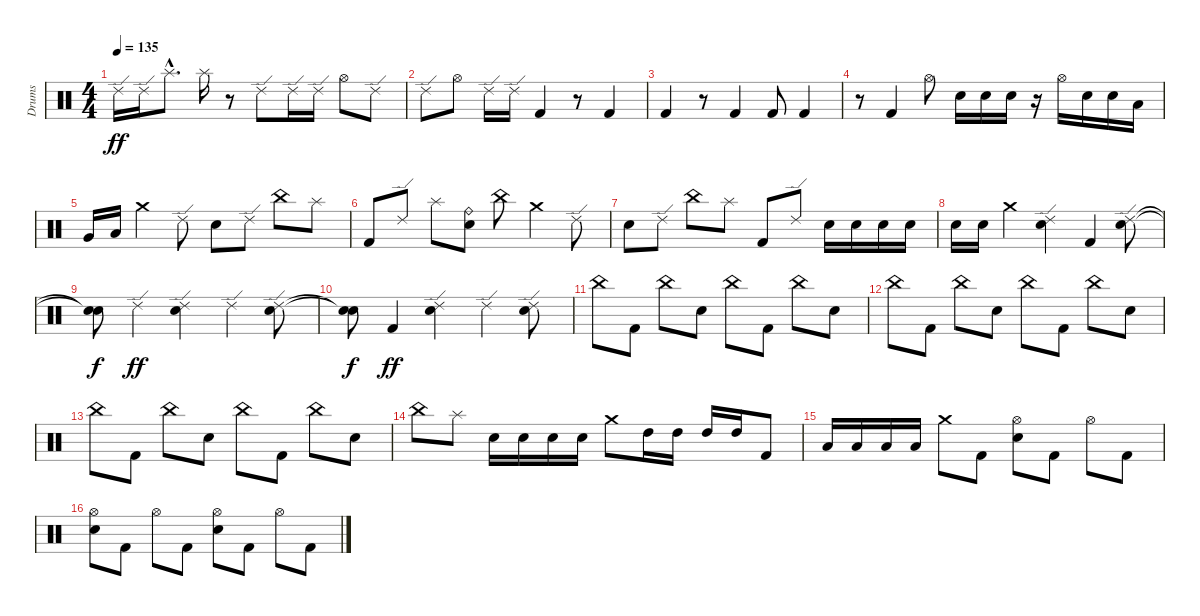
\track ("Drums" "Drums") {instrument percussion}
\staff {score}
\articulation defaults
\ts (4 4)
\tempo 135
\clef neutral
\ks c "Ride (edge) 2".16{dy ff} "Ride (edge) 2".16 "Splash (hit)"{hac}.8{d} "Splash (hit)".16
r.8 "Ride (edge) 2".8 "Ride (edge) 2".16 "Ride (edge) 2".16 "Hi-Hat (open)".8 "Ride (edge) 2".8 |
"Ride (edge) 2".8 "Hi-Hat (open)".8 "Ride (edge) 2".16 "Ride (edge) 2".16 "Kick (hit) 2".4 r.8 "Kick (hit) 2".4 |
"Kick (hit) 2".4 r.8 "Kick (hit) 2".4 "Kick (hit) 2".8 "Kick (hit) 2".4 |
r.8 "Kick (hit) 2".4 "Hi-Hat (open)".8 "Electric Snare (hit)".16 "Electric Snare (hit)".16 "Electric Snare (hit)".16 r.16 "Hi-Hat (open)".16 "Electric Snare (hit)".16 "Electric Snare (hit)".16 "Low Tom (hit)".16 |
"Very Low Tom (hit)".16 "Low Floor Tom (hit)".16 "Crash medium (hit)".4 "Ride (edge) 2".8 "Electric Snare (hit)".8 "Ride (edge) 2".8 "China (hit)".8 "Splash (hit)".8 |
"Kick (hit) 2".8 "Ride (edge) 2".8 "Splash (hit)".8 ("Electric Snare (hit)" "Ride (bell)").8 "China (hit)".8 "Crash medium (hit)".4 "Ride (edge) 2".8 |
"Electric Snare (hit)".8 "Ride (edge) 2".8 "China (hit)".8 "Splash (hit)".8 "Kick (hit) 2".8 "Ride (edge) 2".8 "Electric Snare (hit)".16 "Electric Snare (hit)".16 "Electric Snare (hit)".16 "Electric Snare (hit)".16 |
"Electric Snare (hit)".16 "Electric Snare (hit)".16 "Crash medium (hit)".4 ("Electric Snare (hit)" "Ride (edge) 2").4 "Kick (hit) 2".4 ("Electric Snare (hit)" "Ride (edge) 2").8 |
("Snare (hit)"{t} "Snare (hit)"{t}).8{dy f} "Ride (edge) 2".4{dy ff} ("Electric Snare (hit)" "Ride (edge) 2").4 "Ride (edge) 2".4 ("Electric Snare (hit)" "Ride (edge) 2").8 |
("Snare (hit)"{t} "Snare (hit)"{t}).8{dy f} "Kick (hit) 2".4{dy ff} ("Electric Snare (hit)" "Ride (edge) 2").4 "Ride (edge) 2".4 ("Electric Snare (hit)" "Ride (edge) 2").8 |
"China (hit)".8 "Kick (hit) 2".8 "China (hit)".8 "Electric Snare (hit)".8 "China (hit)".8 "Kick (hit) 2".8 "China (hit)".8 "Electric Snare (hit)".8 |
"China (hit)".8 "Kick (hit) 2".8 "China (hit)".8 "Electric Snare (hit)".8 "China (hit)".8 "Kick (hit) 2".8 "China (hit)".8 "Electric Snare (hit)".8 |
"China (hit)".8 "Kick (hit) 2".8 "China (hit)".8 "Electric Snare (hit)".8 "China (hit)".8 "Kick (hit) 2".8 "China (hit)".8 "Electric Snare (hit)".8 |
"China (hit)".8 "Splash (hit)".8 "Electric Snare (hit)".16 "Electric Snare (hit)".16 "Electric Snare (hit)".16 "Electric Snare (hit)".16 "Crash medium (hit)".8 "High Tom (hit)".16 "High Tom (hit)".16 "High Tom (hit)".16 "High Tom (hit)".16 "Kick (hit) 2".8 |
"Low Tom (hit)".16 "Low Tom (hit)".16 "Low Tom (hit)".16 "Low Tom (hit)".16 "Crash medium (hit)".8 "Kick (hit) 2".8 ("Electric Snare (hit)" "Hi-Hat (open)").8 "Kick (hit) 2".8 "Hi-Hat (open)".8 "Kick (hit) 2".8 |
("Electric Snare (hit)" "Hi-Hat (open)").8 "Kick (hit) 2".8 "Hi-Hat (open)".8 "Kick (hit) 2".8 ("Electric Snare (hit)" "Hi-Hat (open)").8 "Kick (hit) 2".8 "Hi-Hat (open)".8 "Kick (hit) 2".8
